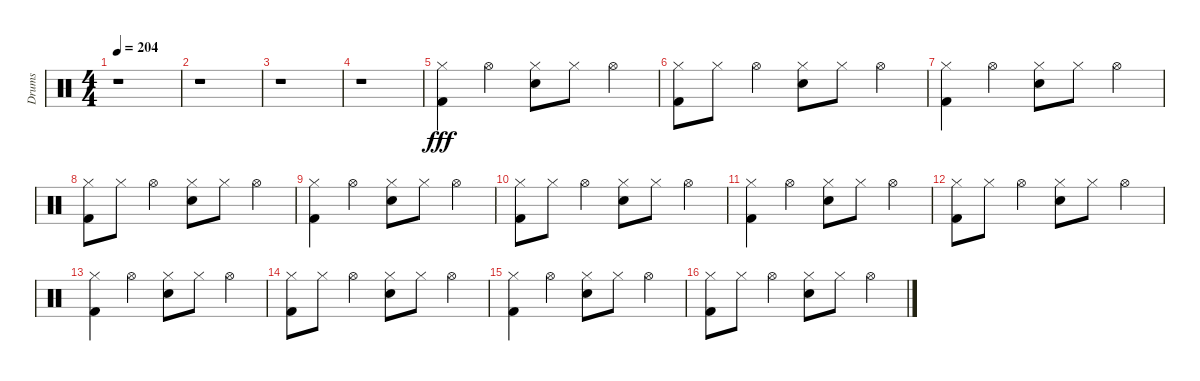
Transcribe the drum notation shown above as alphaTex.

\track ("Drums" "Drums") {instrument percussion}
\staff {score}
\articulation defaults
\ts (4 4)
\tempo 204
\clef neutral
\ks c
r.1{dy fff} |
r.1 |
r.1 |
r.1 |
("Kick (hit) 2" "Hi-Hat (closed)").4 "Hi-Hat (open)".4 ("Snare (hit) 2" "Hi-Hat (closed)").8 "Hi-Hat (closed)".8 "Hi-Hat (open)".4 |
("Kick (hit) 2" "Hi-Hat (closed)").8 "Hi-Hat (closed)".8 "Hi-Hat (open)".4 ("Snare (hit) 2" "Hi-Hat (closed)").8 "Hi-Hat (closed)".8 "Hi-Hat (open)".4 |
("Kick (hit) 2" "Hi-Hat (closed)").4 "Hi-Hat (open)".4 ("Snare (hit) 2" "Hi-Hat (closed)").8 "Hi-Hat (closed)".8 "Hi-Hat (open)".4 |
("Kick (hit) 2" "Hi-Hat (closed)").8 "Hi-Hat (closed)".8 "Hi-Hat (open)".4 ("Snare (hit) 2" "Hi-Hat (closed)").8 "Hi-Hat (closed)".8 "Hi-Hat (open)".4 |
("Kick (hit) 2" "Hi-Hat (closed)").4 "Hi-Hat (open)".4 ("Snare (hit) 2" "Hi-Hat (closed)").8 "Hi-Hat (closed)".8 "Hi-Hat (open)".4 |
("Kick (hit) 2" "Hi-Hat (closed)").8 "Hi-Hat (closed)".8 "Hi-Hat (open)".4 ("Snare (hit) 2" "Hi-Hat (closed)").8 "Hi-Hat (closed)".8 "Hi-Hat (open)".4 |
("Kick (hit) 2" "Hi-Hat (closed)").4 "Hi-Hat (open)".4 ("Snare (hit) 2" "Hi-Hat (closed)").8 "Hi-Hat (closed)".8 "Hi-Hat (open)".4 |
("Kick (hit) 2" "Hi-Hat (closed)").8 "Hi-Hat (closed)".8 "Hi-Hat (open)".4 ("Snare (hit) 2" "Hi-Hat (closed)").8 "Hi-Hat (closed)".8 "Hi-Hat (open)".4 |
("Kick (hit) 2" "Hi-Hat (closed)").4 "Hi-Hat (open)".4 ("Snare (hit) 2" "Hi-Hat (closed)").8 "Hi-Hat (closed)".8 "Hi-Hat (open)".4 |
("Kick (hit) 2" "Hi-Hat (closed)").8 "Hi-Hat (closed)".8 "Hi-Hat (open)".4 ("Snare (hit) 2" "Hi-Hat (closed)").8 "Hi-Hat (closed)".8 "Hi-Hat (open)".4 |
("Kick (hit) 2" "Hi-Hat (closed)").4 "Hi-Hat (open)".4 ("Snare (hit) 2" "Hi-Hat (closed)").8 "Hi-Hat (closed)".8 "Hi-Hat (open)".4 |
("Kick (hit) 2" "Hi-Hat (closed)").8 "Hi-Hat (closed)".8 "Hi-Hat (open)".4 ("Snare (hit) 2" "Hi-Hat (closed)").8 "Hi-Hat (closed)".8 "Hi-Hat (open)".4
